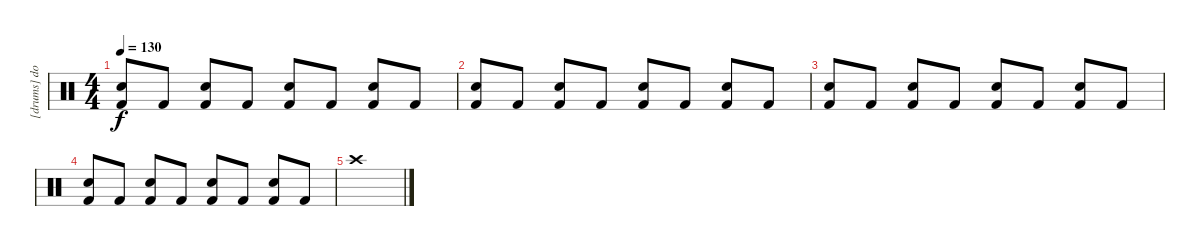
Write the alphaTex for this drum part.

\track ("[drums] dom" "[drums] do") {instrument percussion}
\staff {score}
\articulation defaults
\ts (4 4)
\tempo 130
\clef neutral
\ks c
("Snare (hit) 2" "Kick (hit) 2").8{dy f} "Kick (hit) 2".8 ("Snare (hit) 2" "Kick (hit) 2").8 "Kick (hit) 2".8 ("Snare (hit) 2" "Kick (hit) 2").8 "Kick (hit) 2".8 ("Snare (hit) 2" "Kick (hit) 2").8 "Kick (hit) 2".8 |
("Snare (hit) 2" "Kick (hit) 2").8 "Kick (hit) 2".8 ("Snare (hit) 2" "Kick (hit) 2").8 "Kick (hit) 2".8 ("Snare (hit) 2" "Kick (hit) 2").8 "Kick (hit) 2".8 ("Snare (hit) 2" "Kick (hit) 2").8 "Kick (hit) 2".8 |
("Snare (hit) 2" "Kick (hit) 2").8 "Kick (hit) 2".8 ("Snare (hit) 2" "Kick (hit) 2").8 "Kick (hit) 2".8 ("Snare (hit) 2" "Kick (hit) 2").8 "Kick (hit) 2".8 ("Snare (hit) 2" "Kick (hit) 2").8 "Kick (hit) 2".8 |
("Snare (hit) 2" "Kick (hit) 2").8 "Kick (hit) 2".8 ("Snare (hit) 2" "Kick (hit) 2").8 "Kick (hit) 2".8 ("Snare (hit) 2" "Kick (hit) 2").8 "Kick (hit) 2".8 ("Snare (hit) 2" "Kick (hit) 2").8 "Kick (hit) 2".8 |
"Crash high (hit)".1
